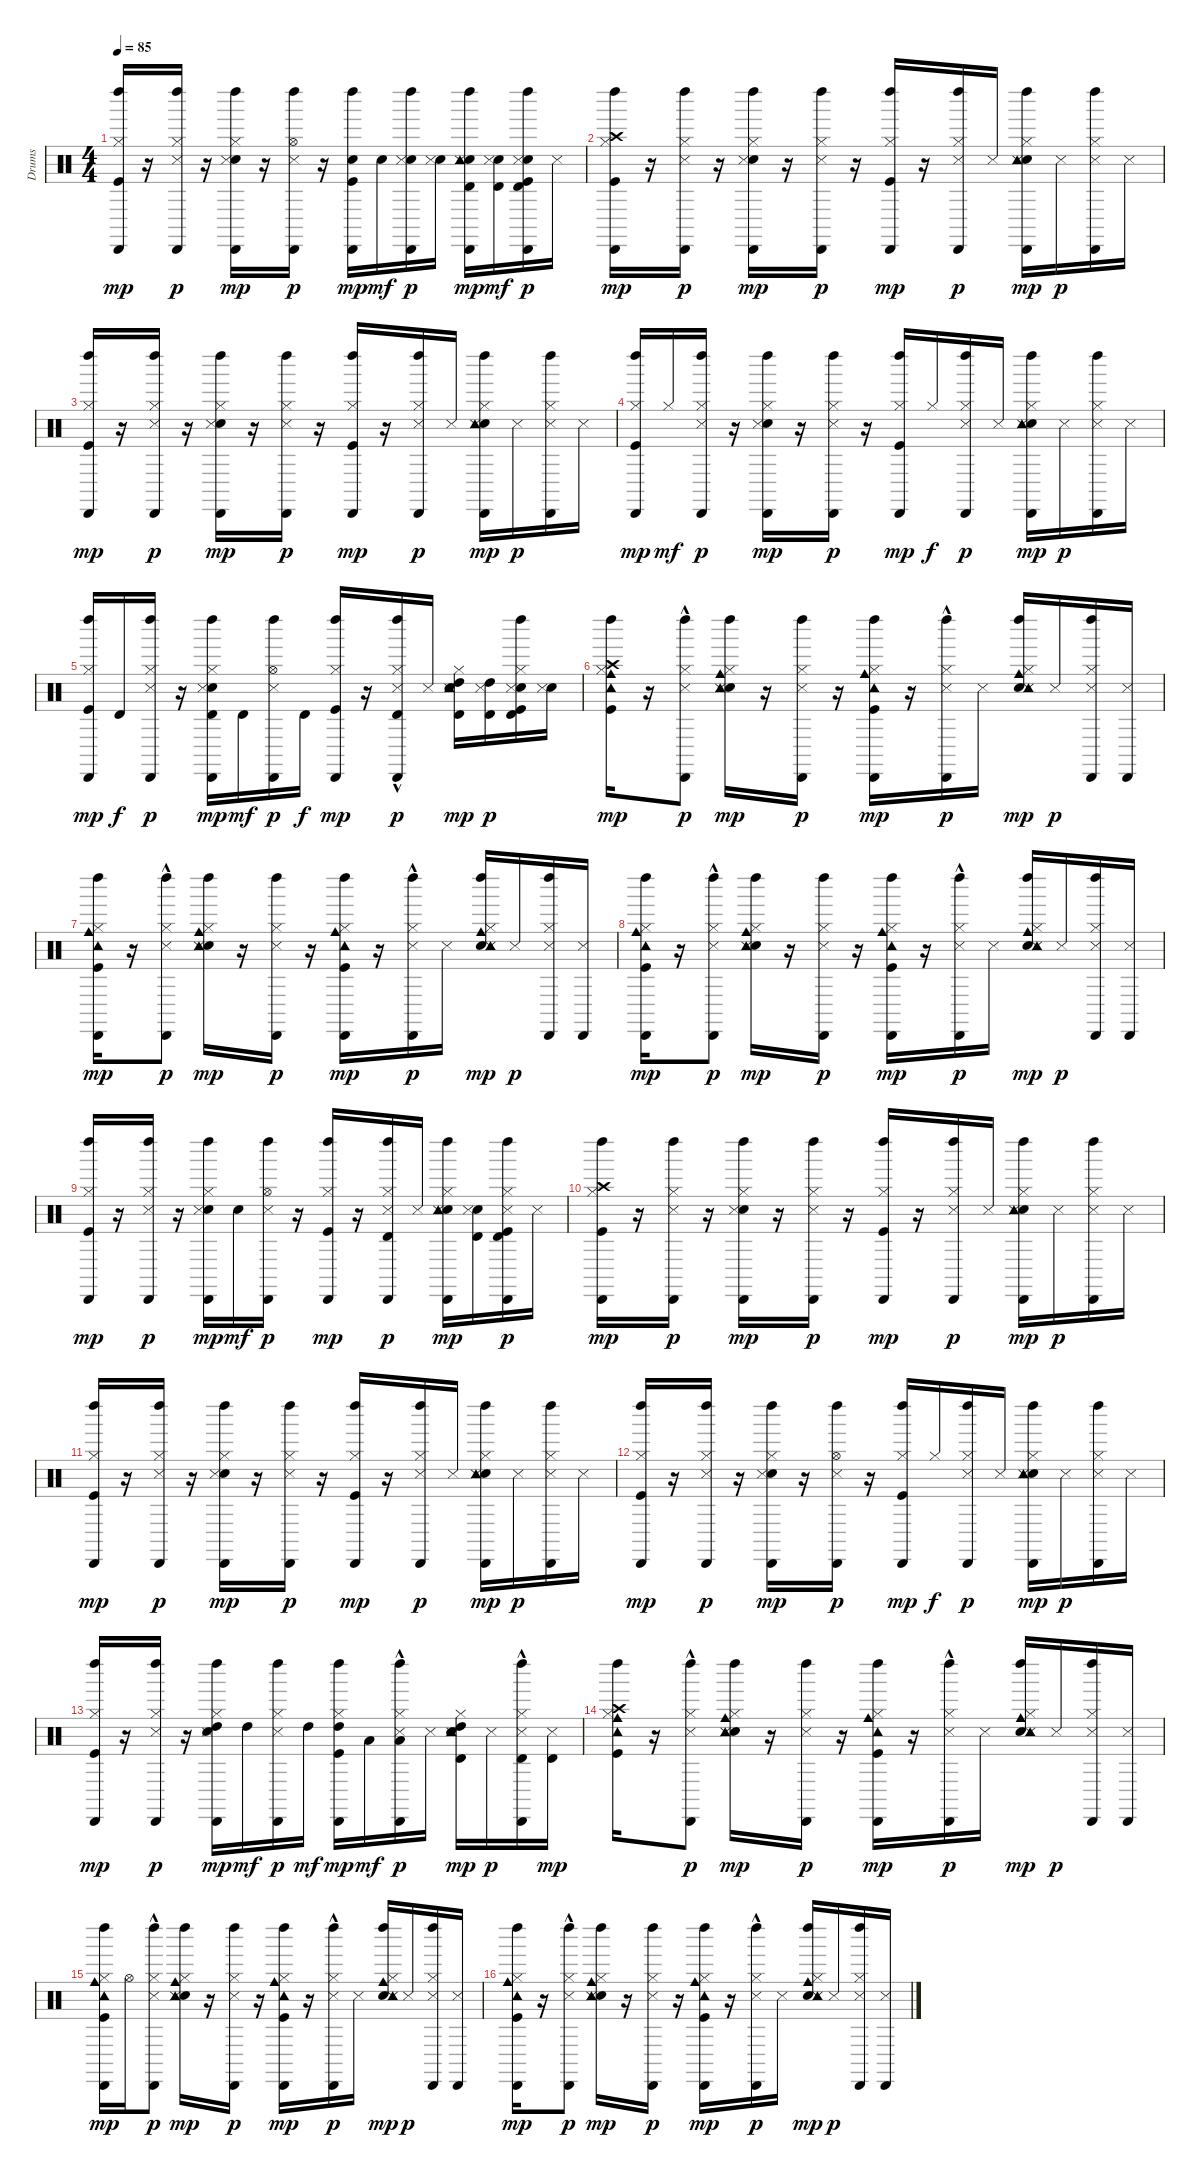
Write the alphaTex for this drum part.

\track ("Drums" "Drums") {instrument percussion}
\staff {score}
\articulation defaults
\ts (4 4)
\tempo 85
\clef neutral
\ks c
("Kick (hit)" "Hi-Hat (closed)" "Left Maraca (hit)" "Cabasa (hit)").16{dy mp} r.16 ("Hi-Hat (closed)" "Snare (side stick) 3" "Left Maraca (hit)" "Cabasa (hit)").16{dy p} r.16 ("Snare (hit) 2" "Hi-Hat (closed)" "Snare (side stick) 3" "Left Maraca (hit)" "Cabasa (hit)").16{dy mp} r.16 ("Hi-Hat (open)" "Snare (side stick) 3" "Left Maraca (hit)" "Cabasa (hit)").16{dy p} r.16 ("Kick (hit)" "Snare (hit) 2" "Left Maraca (hit)" "Cabasa (hit)").16{dy mp} "Snare (hit) 2".16{dy mf} ("Snare (hit) 2" "Snare (side stick) 3" "Left Maraca (hit)" "Cabasa (hit)").16{dy p} ("Snare (hit) 2" "Snare (side stick) 3").16 ("Snare (hit) 2" "Snare (side stick) 3" "Timbale high (hit)" "Tambourine (hit)" "Left Maraca (hit)" "Cabasa (hit)").16{dy mp} ("Snare (hit) 2" "Snare (side stick) 3" "Timbale high (hit)").16{dy mf} ("Kick (hit)" "Snare (hit) 2" "Snare (side stick) 3" "Timbale high (hit)" "Left Maraca (hit)" "Cabasa (hit)").16{dy p} "Snare (side stick) 3".16 |
("Kick (hit)" "Hi-Hat (closed)" "Crash high (hit)" "Left Maraca (hit)" "Cabasa (hit)").16{dy mp} r.16 ("Hi-Hat (closed)" "Snare (side stick) 3" "Left Maraca (hit)" "Cabasa (hit)").16{dy p} r.16 ("Snare (hit) 2" "Hi-Hat (closed)" "Snare (side stick) 3" "Left Maraca (hit)" "Cabasa (hit)").16{dy mp} r.16 ("Hi-Hat (closed)" "Snare (side stick) 3" "Left Maraca (hit)" "Cabasa (hit)").16{dy p} r.16 ("Kick (hit)" "Hi-Hat (closed)" "Left Maraca (hit)" "Cabasa (hit)").16{dy mp} r.16 ("Hi-Hat (closed)" "Snare (side stick) 3" "Left Maraca (hit)" "Cabasa (hit)").16{dy p} "Snare (side stick) 3".16 ("Snare (hit) 2" "Hi-Hat (closed)" "Snare (side stick) 3" "Tambourine (hit)" "Left Maraca (hit)" "Cabasa (hit)").16{dy mp} "Snare (side stick) 3".16{dy p} ("Hi-Hat (closed)" "Snare (side stick) 3" "Left Maraca (hit)" "Cabasa (hit)").16 "Snare (side stick) 3".16 |
("Kick (hit)" "Hi-Hat (closed)" "Left Maraca (hit)" "Cabasa (hit)").16{dy mp} r.16 ("Hi-Hat (closed)" "Snare (side stick) 3" "Left Maraca (hit)" "Cabasa (hit)").16{dy p} r.16 ("Snare (hit) 2" "Hi-Hat (closed)" "Snare (side stick) 3" "Left Maraca (hit)" "Cabasa (hit)").16{dy mp} r.16 ("Hi-Hat (closed)" "Snare (side stick) 3" "Left Maraca (hit)" "Cabasa (hit)").16{dy p} r.16 ("Kick (hit)" "Hi-Hat (closed)" "Left Maraca (hit)" "Cabasa (hit)").16{dy mp} r.16 ("Hi-Hat (closed)" "Snare (side stick) 3" "Left Maraca (hit)" "Cabasa (hit)").16{dy p} "Snare (side stick) 3".16 ("Snare (hit) 2" "Hi-Hat (closed)" "Snare (side stick) 3" "Tambourine (hit)" "Left Maraca (hit)" "Cabasa (hit)").16{dy mp} "Snare (side stick) 3".16{dy p} ("Hi-Hat (closed)" "Snare (side stick) 3" "Left Maraca (hit)" "Cabasa (hit)").16 "Snare (side stick) 3".16 |
("Kick (hit)" "Hi-Hat (closed)" "Left Maraca (hit)" "Cabasa (hit)").16{dy mp} "Hi-Hat (closed)".16{dy mf} ("Hi-Hat (closed)" "Snare (side stick) 3" "Left Maraca (hit)" "Cabasa (hit)").16{dy p} r.16 ("Snare (hit) 2" "Hi-Hat (closed)" "Snare (side stick) 3" "Left Maraca (hit)" "Cabasa (hit)").16{dy mp} r.16 ("Hi-Hat (closed)" "Snare (side stick) 3" "Left Maraca (hit)" "Cabasa (hit)").16{dy p} r.16 ("Kick (hit)" "Hi-Hat (closed)" "Left Maraca (hit)" "Cabasa (hit)").16{dy mp} "Hi-Hat (closed)".16{dy f} ("Hi-Hat (closed)" "Snare (side stick) 3" "Left Maraca (hit)" "Cabasa (hit)").16{dy p} "Snare (side stick) 3".16 ("Snare (hit) 2" "Hi-Hat (closed)" "Snare (side stick) 3" "Tambourine (hit)" "Left Maraca (hit)" "Cabasa (hit)").16{dy mp} "Snare (side stick) 3".16{dy p} ("Hi-Hat (closed)" "Snare (side stick) 3" "Left Maraca (hit)" "Cabasa (hit)").16 "Snare (side stick) 3".16 |
("Kick (hit)" "Hi-Hat (closed)" "Left Maraca (hit)" "Cabasa (hit)").16{dy mp} "Timbale high (hit)".16{dy f} ("Hi-Hat (closed)" "Snare (side stick) 3" "Left Maraca (hit)" "Cabasa (hit)").16{dy p} r.16 ("Snare (hit) 2" "Hi-Hat (closed)" "Snare (side stick) 3" "Timbale high (hit)" "Left Maraca (hit)" "Cabasa (hit)").16{dy mp} "Timbale high (hit)".16{dy mf} ("Hi-Hat (open)" "Snare (side stick) 3" "Left Maraca (hit)" "Cabasa (hit)").16{dy p} "Timbale high (hit)".16{dy f} ("Kick (hit)" "Hi-Hat (closed)" "Left Maraca (hit)" "Cabasa (hit)").16{dy mp} r.16 ("Hi-Hat (closed)" "Snare (side stick) 3" "Timbale high (hit)" "Left Maraca (hit)"{hac} "Cabasa (hit)"{hac}).16{dy p} "Snare (side stick) 3".16 ("Snare (hit) 2" "Hi-Hat (closed)" "Snare (side stick) 3" "High Tom (hit)" "Timbale high (hit)" "Tambourine (hit)").16{dy mp} ("Snare (side stick) 3" "High Tom (hit)" "Timbale high (hit)").16{dy p} ("Kick (hit)" "Snare (hit) 2" "Hi-Hat (closed)" "Snare (side stick) 3" "Timbale high (hit)" "Left Maraca (hit)").16 ("Snare (hit) 2" "Snare (side stick) 3").16 |
("Kick (hit)" "Hi-Hat (closed)" "Cowbell medium (hit)" "Crash high (hit)" "Tambourine (hit)" "Left Maraca (hit)").16{dy mp} r.16 ("Hi-Hat (closed)" "Snare (side stick) 3" "Left Maraca (hit)" "Cabasa (hit)"{hac}).8{dy p} ("Snare (hit) 2" "Hi-Hat (closed)" "Snare (side stick) 3" "Cowbell medium (hit)" "Tambourine (hit)" "Left Maraca (hit)").16{dy mp} r.16 ("Hi-Hat (closed)" "Snare (side stick) 3" "Left Maraca (hit)" "Cabasa (hit)").16{dy p} r.16 ("Kick (hit)" "Hi-Hat (closed)" "Cowbell medium (hit)" "Tambourine (hit)" "Left Maraca (hit)" "Cabasa (hit)").16{dy mp} r.16 ("Hi-Hat (closed)" "Snare (side stick) 3" "Left Maraca (hit)" "Cabasa (hit)"{hac}).16{dy p} "Snare (side stick) 3".16 ("Snare (hit) 2" "Hi-Hat (closed)" "Snare (side stick) 3" "Cowbell medium (hit)" "Tambourine (hit)" "Left Maraca (hit)").16{dy mp} "Snare (side stick) 3".16{dy p} ("Hi-Hat (closed)" "Snare (side stick) 3" "Left Maraca (hit)" "Cabasa (hit)").16 ("Snare (side stick) 3" "Cabasa (hit)").16 |
("Kick (hit)" "Hi-Hat (closed)" "Cowbell medium (hit)" "Tambourine (hit)" "Left Maraca (hit)" "Cabasa (hit)").16{dy mp} r.16 ("Hi-Hat (closed)" "Snare (side stick) 3" "Left Maraca (hit)" "Cabasa (hit)"{hac}).8{dy p} ("Snare (hit) 2" "Hi-Hat (closed)" "Snare (side stick) 3" "Cowbell medium (hit)" "Tambourine (hit)" "Left Maraca (hit)").16{dy mp} r.16 ("Hi-Hat (closed)" "Snare (side stick) 3" "Left Maraca (hit)" "Cabasa (hit)").16{dy p} r.16 ("Kick (hit)" "Hi-Hat (closed)" "Cowbell medium (hit)" "Tambourine (hit)" "Left Maraca (hit)" "Cabasa (hit)").16{dy mp} r.16 ("Hi-Hat (closed)" "Snare (side stick) 3" "Left Maraca (hit)" "Cabasa (hit)"{hac}).16{dy p} "Snare (side stick) 3".16 ("Snare (hit) 2" "Hi-Hat (closed)" "Snare (side stick) 3" "Cowbell medium (hit)" "Tambourine (hit)" "Left Maraca (hit)").16{dy mp} "Snare (side stick) 3".16{dy p} ("Hi-Hat (closed)" "Snare (side stick) 3" "Left Maraca (hit)" "Cabasa (hit)").16 ("Snare (side stick) 3" "Cabasa (hit)").16 |
("Kick (hit)" "Hi-Hat (closed)" "Cowbell medium (hit)" "Tambourine (hit)" "Left Maraca (hit)" "Cabasa (hit)").16{dy mp} r.16 ("Hi-Hat (closed)" "Snare (side stick) 3" "Left Maraca (hit)" "Cabasa (hit)"{hac}).8{dy p} ("Snare (hit) 2" "Hi-Hat (closed)" "Snare (side stick) 3" "Cowbell medium (hit)" "Tambourine (hit)" "Left Maraca (hit)").16{dy mp} r.16 ("Hi-Hat (closed)" "Snare (side stick) 3" "Left Maraca (hit)" "Cabasa (hit)").16{dy p} r.16 ("Kick (hit)" "Hi-Hat (closed)" "Cowbell medium (hit)" "Tambourine (hit)" "Left Maraca (hit)" "Cabasa (hit)").16{dy mp} r.16 ("Hi-Hat (closed)" "Snare (side stick) 3" "Left Maraca (hit)" "Cabasa (hit)"{hac}).16{dy p} "Snare (side stick) 3".16 ("Snare (hit) 2" "Hi-Hat (closed)" "Snare (side stick) 3" "Cowbell medium (hit)" "Tambourine (hit)" "Left Maraca (hit)").16{dy mp} "Snare (side stick) 3".16{dy p} ("Hi-Hat (closed)" "Snare (side stick) 3" "Left Maraca (hit)" "Cabasa (hit)").16 ("Snare (side stick) 3" "Cabasa (hit)").16 |
("Kick (hit)" "Hi-Hat (closed)" "Left Maraca (hit)" "Cabasa (hit)").16{dy mp} r.16 ("Hi-Hat (closed)" "Snare (side stick) 3" "Left Maraca (hit)" "Cabasa (hit)").16{dy p} r.16 ("Snare (hit) 2" "Hi-Hat (closed)" "Snare (side stick) 3" "Left Maraca (hit)" "Cabasa (hit)").16{dy mp} "Snare (hit) 2".16{dy mf} ("Hi-Hat (open)" "Snare (side stick) 3" "Left Maraca (hit)" "Cabasa (hit)").16{dy p} r.16 ("Kick (hit)" "Hi-Hat (closed)" "Left Maraca (hit)" "Cabasa (hit)").16{dy mp} r.16 ("Hi-Hat (closed)" "Snare (side stick) 3" "Timbale high (hit)" "Left Maraca (hit)" "Cabasa (hit)").16{dy p} "Snare (side stick) 3".16 ("Snare (hit) 2" "Hi-Hat (closed)" "Snare (side stick) 3" "Tambourine (hit)" "Left Maraca (hit)" "Cabasa (hit)").16{dy mp} ("Snare (hit) 2" "Snare (side stick) 3" "Timbale high (hit)").16 ("Kick (hit)" "Hi-Hat (closed)" "Snare (side stick) 3" "Timbale high (hit)" "Left Maraca (hit)" "Cabasa (hit)").16{dy p} "Snare (side stick) 3".16 |
("Kick (hit)" "Hi-Hat (closed)" "Crash high (hit)" "Left Maraca (hit)" "Cabasa (hit)").16{dy mp} r.16 ("Hi-Hat (closed)" "Snare (side stick) 3" "Left Maraca (hit)" "Cabasa (hit)").16{dy p} r.16 ("Snare (hit) 2" "Hi-Hat (closed)" "Snare (side stick) 3" "Left Maraca (hit)" "Cabasa (hit)").16{dy mp} r.16 ("Hi-Hat (closed)" "Snare (side stick) 3" "Left Maraca (hit)" "Cabasa (hit)").16{dy p} r.16 ("Kick (hit)" "Hi-Hat (closed)" "Left Maraca (hit)" "Cabasa (hit)").16{dy mp} r.16 ("Hi-Hat (closed)" "Snare (side stick) 3" "Left Maraca (hit)" "Cabasa (hit)").16{dy p} "Snare (side stick) 3".16 ("Snare (hit) 2" "Hi-Hat (closed)" "Snare (side stick) 3" "Tambourine (hit)" "Left Maraca (hit)" "Cabasa (hit)").16{dy mp} "Snare (side stick) 3".16{dy p} ("Hi-Hat (closed)" "Snare (side stick) 3" "Left Maraca (hit)" "Cabasa (hit)").16 "Snare (side stick) 3".16 |
("Kick (hit)" "Hi-Hat (closed)" "Left Maraca (hit)" "Cabasa (hit)").16{dy mp} r.16 ("Hi-Hat (closed)" "Snare (side stick) 3" "Left Maraca (hit)" "Cabasa (hit)").16{dy p} r.16 ("Snare (hit) 2" "Hi-Hat (closed)" "Snare (side stick) 3" "Left Maraca (hit)" "Cabasa (hit)").16{dy mp} r.16 ("Hi-Hat (closed)" "Snare (side stick) 3" "Left Maraca (hit)" "Cabasa (hit)").16{dy p} r.16 ("Kick (hit)" "Hi-Hat (closed)" "Left Maraca (hit)" "Cabasa (hit)").16{dy mp} r.16 ("Hi-Hat (closed)" "Snare (side stick) 3" "Left Maraca (hit)" "Cabasa (hit)").16{dy p} "Snare (side stick) 3".16 ("Snare (hit) 2" "Hi-Hat (closed)" "Snare (side stick) 3" "Tambourine (hit)" "Left Maraca (hit)" "Cabasa (hit)").16{dy mp} "Snare (side stick) 3".16{dy p} ("Hi-Hat (closed)" "Snare (side stick) 3" "Left Maraca (hit)" "Cabasa (hit)").16 "Snare (side stick) 3".16 |
("Kick (hit)" "Hi-Hat (closed)" "Left Maraca (hit)" "Cabasa (hit)").16{dy mp} r.16 ("Hi-Hat (closed)" "Snare (side stick) 3" "Left Maraca (hit)" "Cabasa (hit)").16{dy p} r.16 ("Snare (hit) 2" "Hi-Hat (closed)" "Snare (side stick) 3" "Left Maraca (hit)" "Cabasa (hit)").16{dy mp} r.16 ("Hi-Hat (open)" "Snare (side stick) 3" "Left Maraca (hit)" "Cabasa (hit)").16{dy p} r.16 ("Kick (hit)" "Hi-Hat (closed)" "Left Maraca (hit)" "Cabasa (hit)").16{dy mp} "Hi-Hat (closed)".16{dy f} ("Hi-Hat (closed)" "Snare (side stick) 3" "Left Maraca (hit)" "Cabasa (hit)").16{dy p} "Snare (side stick) 3".16 ("Snare (hit) 2" "Hi-Hat (closed)" "Snare (side stick) 3" "Tambourine (hit)" "Left Maraca (hit)" "Cabasa (hit)").16{dy mp} "Snare (side stick) 3".16{dy p} ("Hi-Hat (closed)" "Snare (side stick) 3" "Left Maraca (hit)" "Cabasa (hit)").16 "Snare (side stick) 3".16 |
("Kick (hit)" "Hi-Hat (closed)" "Left Maraca (hit)" "Cabasa (hit)").16{dy mp} r.16 ("Hi-Hat (closed)" "Snare (side stick) 3" "Left Maraca (hit)" "Cabasa (hit)").16{dy p} r.16 ("Snare (hit) 2" "Hi-Hat (closed)" "Snare (side stick) 3" "High Tom (hit)" "Left Maraca (hit)" "Cabasa (hit)").16{dy mp} "High Tom (hit)".16{dy mf} ("Hi-Hat (closed)" "Snare (side stick) 3" "Left Maraca (hit)" "Cabasa (hit)").16{dy p} "High Tom (hit)".16{dy mf} ("Kick (hit)" "Hi-Hat (closed)" "High Tom (hit)" "Left Maraca (hit)" "Cabasa (hit)").16{dy mp} "Low Tom (hit)".16{dy mf} ("Hi-Hat (closed)" "Snare (side stick) 3" "Low Tom (hit)" "Left Maraca (hit)"{hac} "Cabasa (hit)"{hac}).16{dy p} "Snare (side stick) 3".16 ("Snare (hit) 2" "Hi-Hat (closed)" "Snare (side stick) 3" "High Tom (hit)" "Timbale high (hit)" "Tambourine (hit)").16{dy mp} "Snare (side stick) 3".16{dy p} ("Hi-Hat (closed)" "Snare (side stick) 3" "Timbale high (hit)" "Left Maraca (hit)" "Cabasa (hit)"{hac}).16 ("Snare (side stick) 3" "Timbale high (hit)").16{dy mp} |
("Kick (hit)" "Hi-Hat (closed)" "Cowbell medium (hit)" "Crash high (hit)" "Tambourine (hit)" "Left Maraca (hit)").16 r.16 ("Hi-Hat (closed)" "Snare (side stick) 3" "Left Maraca (hit)" "Cabasa (hit)"{hac}).8{dy p} ("Snare (hit) 2" "Hi-Hat (closed)" "Snare (side stick) 3" "Cowbell medium (hit)" "Tambourine (hit)" "Left Maraca (hit)").16{dy mp} r.16 ("Hi-Hat (closed)" "Snare (side stick) 3" "Left Maraca (hit)" "Cabasa (hit)").16{dy p} r.16 ("Kick (hit)" "Hi-Hat (closed)" "Cowbell medium (hit)" "Tambourine (hit)" "Left Maraca (hit)" "Cabasa (hit)").16{dy mp} r.16 ("Hi-Hat (closed)" "Snare (side stick) 3" "Left Maraca (hit)" "Cabasa (hit)"{hac}).16{dy p} "Snare (side stick) 3".16 ("Snare (hit) 2" "Hi-Hat (closed)" "Snare (side stick) 3" "Cowbell medium (hit)" "Tambourine (hit)" "Left Maraca (hit)").16{dy mp} "Snare (side stick) 3".16{dy p} ("Hi-Hat (closed)" "Snare (side stick) 3" "Left Maraca (hit)" "Cabasa (hit)").16 ("Snare (side stick) 3" "Cabasa (hit)").16 |
("Kick (hit)" "Hi-Hat (closed)" "Cowbell medium (hit)" "Tambourine (hit)" "Left Maraca (hit)" "Cabasa (hit)").16{dy mp} "Hi-Hat (open)".16 ("Hi-Hat (closed)" "Snare (side stick) 3" "Left Maraca (hit)" "Cabasa (hit)"{hac}).8{dy p} ("Snare (hit) 2" "Hi-Hat (closed)" "Snare (side stick) 3" "Cowbell medium (hit)" "Tambourine (hit)" "Left Maraca (hit)").16{dy mp} r.16 ("Hi-Hat (closed)" "Snare (side stick) 3" "Left Maraca (hit)" "Cabasa (hit)").16{dy p} r.16 ("Kick (hit)" "Hi-Hat (closed)" "Cowbell medium (hit)" "Tambourine (hit)" "Left Maraca (hit)" "Cabasa (hit)").16{dy mp} r.16 ("Hi-Hat (closed)" "Snare (side stick) 3" "Left Maraca (hit)" "Cabasa (hit)"{hac}).16{dy p} "Snare (side stick) 3".16 ("Snare (hit) 2" "Hi-Hat (closed)" "Snare (side stick) 3" "Cowbell medium (hit)" "Tambourine (hit)" "Left Maraca (hit)").16{dy mp} "Snare (side stick) 3".16{dy p} ("Hi-Hat (closed)" "Snare (side stick) 3" "Left Maraca (hit)" "Cabasa (hit)").16 ("Snare (side stick) 3" "Cabasa (hit)").16 |
("Kick (hit)" "Hi-Hat (closed)" "Cowbell medium (hit)" "Tambourine (hit)" "Left Maraca (hit)" "Cabasa (hit)").16{dy mp} r.16 ("Hi-Hat (closed)" "Snare (side stick) 3" "Left Maraca (hit)" "Cabasa (hit)"{hac}).8{dy p} ("Snare (hit) 2" "Hi-Hat (closed)" "Snare (side stick) 3" "Cowbell medium (hit)" "Tambourine (hit)" "Left Maraca (hit)").16{dy mp} r.16 ("Hi-Hat (closed)" "Snare (side stick) 3" "Left Maraca (hit)" "Cabasa (hit)").16{dy p} r.16 ("Kick (hit)" "Hi-Hat (closed)" "Cowbell medium (hit)" "Tambourine (hit)" "Left Maraca (hit)" "Cabasa (hit)").16{dy mp} r.16 ("Hi-Hat (closed)" "Snare (side stick) 3" "Left Maraca (hit)" "Cabasa (hit)"{hac}).16{dy p} "Snare (side stick) 3".16 ("Snare (hit) 2" "Hi-Hat (closed)" "Snare (side stick) 3" "Cowbell medium (hit)" "Tambourine (hit)" "Left Maraca (hit)").16{dy mp} "Snare (side stick) 3".16{dy p} ("Hi-Hat (closed)" "Snare (side stick) 3" "Left Maraca (hit)" "Cabasa (hit)").16 ("Snare (side stick) 3" "Cabasa (hit)").16
